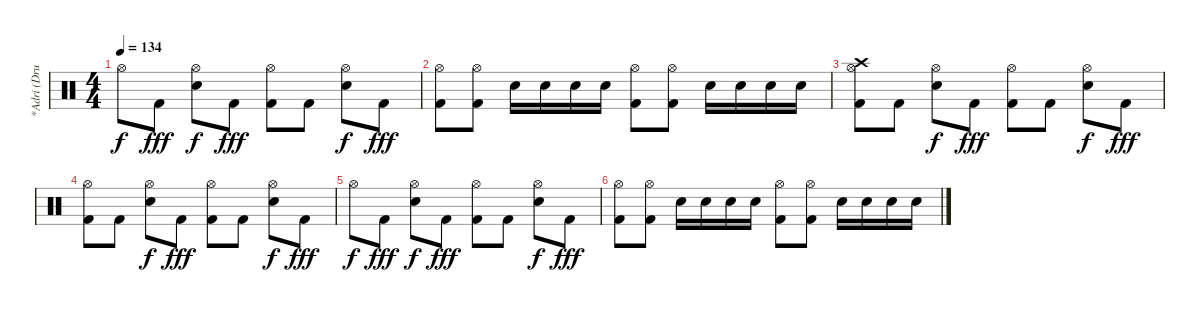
\track ("*Adri (Drum)" "*Adri (Dru") {instrument percussion}
\staff {score}
\articulation defaults
\ts (4 4)
\tempo 134
\clef neutral
\ks c "Hi-Hat (open)".8{dy f} "Kick (hit) 2".8{dy fff}
("Hi-Hat (open)" "Snare (hit) 2").8{dy f} "Kick (hit) 2".8{dy fff} ("Hi-Hat (open)" "Kick (hit) 2").8 "Kick (hit) 2".8 ("Hi-Hat (open)" "Snare (hit) 2").8{dy f} "Kick (hit) 2".8{dy fff} |
("Hi-Hat (open)" "Kick (hit) 2").8 ("Hi-Hat (open)" "Kick (hit) 2").8 "Snare (hit) 2".16 "Snare (hit) 2".16 "Snare (hit) 2".16 "Snare (hit) 2".16 ("Hi-Hat (open)" "Kick (hit) 2").8 ("Hi-Hat (open)" "Kick (hit) 2").8 "Snare (hit) 2".16 "Snare (hit) 2".16 "Snare (hit) 2".16 "Snare (hit) 2".16 |
("Crash high (hit)" "Hi-Hat (open)" "Kick (hit) 2").8 "Kick (hit) 2".8 ("Hi-Hat (open)" "Snare (hit) 2").8{dy f} "Kick (hit) 2".8{dy fff} ("Hi-Hat (open)" "Kick (hit) 2").8 "Kick (hit) 2".8 ("Hi-Hat (open)" "Snare (hit) 2").8{dy f} "Kick (hit) 2".8{dy fff} |
("Hi-Hat (open)" "Kick (hit) 2").8 "Kick (hit) 2".8 ("Hi-Hat (open)" "Snare (hit) 2").8{dy f} "Kick (hit) 2".8{dy fff} ("Hi-Hat (open)" "Kick (hit) 2").8 "Kick (hit) 2".8 ("Hi-Hat (open)" "Snare (hit) 2").8{dy f} "Kick (hit) 2".8{dy fff} |
"Hi-Hat (open)".8{dy f} "Kick (hit) 2".8{dy fff} ("Hi-Hat (open)" "Snare (hit) 2").8{dy f} "Kick (hit) 2".8{dy fff} ("Hi-Hat (open)" "Kick (hit) 2").8 "Kick (hit) 2".8 ("Hi-Hat (open)" "Snare (hit) 2").8{dy f} "Kick (hit) 2".8{dy fff} |
("Hi-Hat (open)" "Kick (hit) 2").8 ("Hi-Hat (open)" "Kick (hit) 2").8 "Snare (hit) 2".16 "Snare (hit) 2".16 "Snare (hit) 2".16 "Snare (hit) 2".16 ("Hi-Hat (open)" "Kick (hit) 2").8 ("Hi-Hat (open)" "Kick (hit) 2").8 "Snare (hit) 2".16 "Snare (hit) 2".16 "Snare (hit) 2".16 "Snare (hit) 2".16
